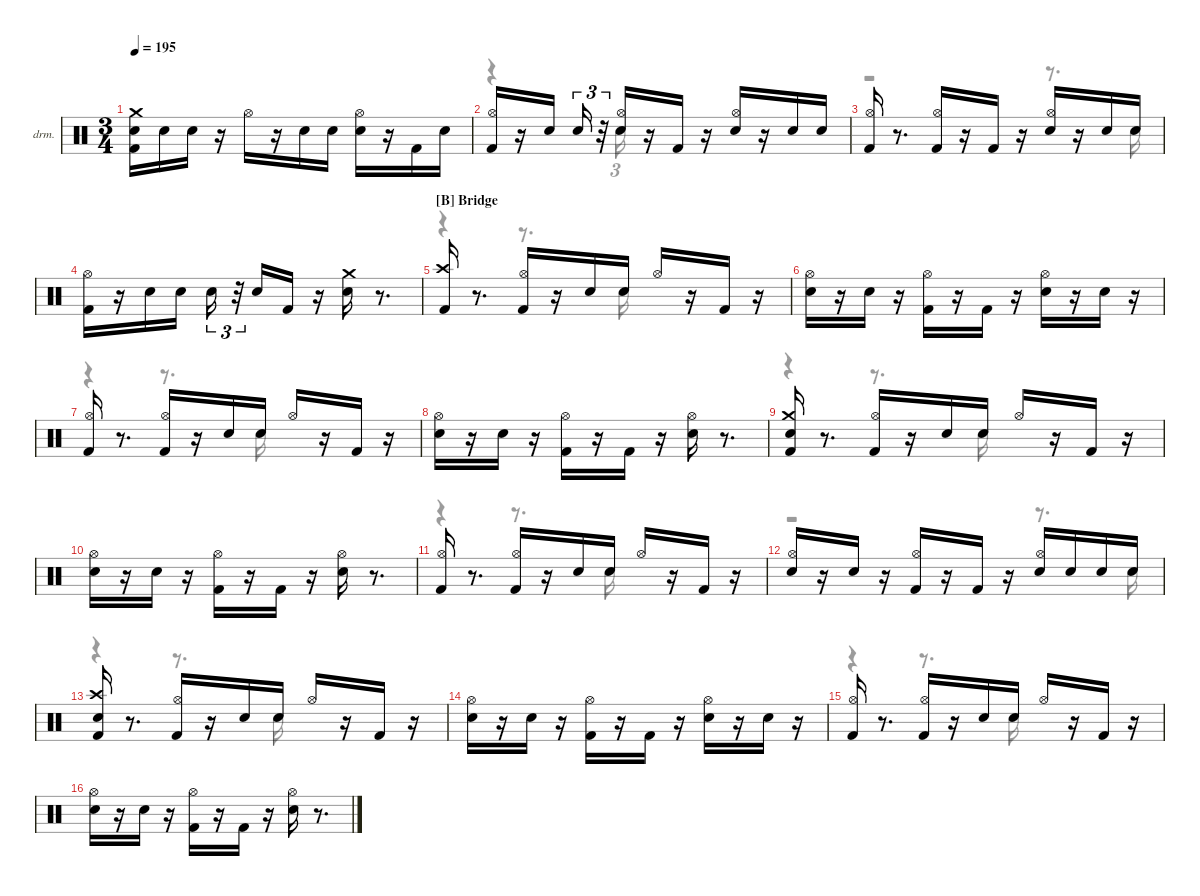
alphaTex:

\hideDynamics
\bracketExtendMode nobrackets
\firstSystemTrackNameOrientation horizontal
\track ("Drums" "drm.") {instrument percussion}
\staff {score}
\articulation defaults
\voice
\ts (3 4)
\tempo 195
\clef neutral
\ks aminor
("Kick (hit) 2" "Snare (hit) 2" "Crash medium (hit)").16{dy f} "Snare (hit) 2".16{dy pp} "Snare (hit) 2".16{dy ppp} r.16 "Hi-Hat (open)"{acc #}.16{dy mp} r.16 "Snare (hit) 2".16{dy ff} "Snare (hit) 2".16{dy pp} ("Snare (hit) 2" "Hi-Hat (open)"{acc #}).16{dy ppp} r.16 "Kick (hit) 2".16{dy p} "Snare (hit) 2".16{dy ppp} |
("Kick (hit) 2" "Hi-Hat (open)"{acc #}).16{dy ff} r.16 "Snare (hit) 2".16 "Snare (hit) 2".16{tu (3 2) dy pp} r.32{tu (3 2)} ("Snare (hit) 2" "Hi-Hat (open)"{acc #}).16{dy mf} r.16 "Kick (hit) 2".16{dy f} r.16 ("Snare (hit) 2" "Hi-Hat (open)"{acc #}).16{dy mf} r.16 "Snare (hit) 2".16{dy f} "Snare (hit) 2".16{dy ppp} |
("Kick (hit) 2" "Hi-Hat (open)"{acc #}).16{dy fff} r.8{d} ("Kick (hit) 2" "Hi-Hat (open)"{acc #}).16{dy mf} r.16 "Kick (hit) 2".16{dy ff} r.16 ("Snare (hit) 2" "Hi-Hat (open)"{acc #}).16{dy mf} r.16 "Snare (hit) 2".16{dy pp} "Snare (hit) 2".16{dy ppp} |
("Kick (hit) 2" "Hi-Hat (open)"{acc #}).16{dy ff} r.16 "Snare (hit) 2".16{dy mf} "Snare (hit) 2".16{dy p} "Snare (hit) 2".16{tu (3 2) dy ff} r.32{tu (3 2)} "Snare (hit) 2".16{dy ppp} "Kick (hit) 2".16{dy f} r.16 ("Snare (hit) 2" "Crash medium (hit)").16{dy ff} r.8{d} |
\section ("B" "Bridge")
("Kick (hit) 2" "Crash high (hit)"{acc #}).16 r.8{d} ("Kick (hit) 2" "Hi-Hat (open)"{acc #}).16{dy mf} r.16 "Snare (hit) 2".16{dy f} "Snare (hit) 2".16{dy ppp} "Hi-Hat (open)"{acc #}.16{dy f} r.16 "Kick (hit) 2".16 r.16 |
("Snare (hit) 2" "Hi-Hat (open)"{acc #}).16{dy ff} r.16 "Snare (hit) 2".16{dy ppp} r.16 ("Kick (hit) 2" "Hi-Hat (open)"{acc #}).16 r.16 "Kick (hit) 2".16{dy ff} r.16 ("Snare (hit) 2" "Hi-Hat (open)"{acc #}).16{dy f} r.16 "Snare (hit) 2".16{dy pp} r.16 |
("Kick (hit) 2" "Hi-Hat (open)"{acc #}).16{dy fff} r.8{d} ("Kick (hit) 2" "Hi-Hat (open)"{acc #}).16{dy f} r.16 "Snare (hit) 2".16 "Snare (hit) 2".16{dy ppp} "Hi-Hat (open)"{acc #}.16{dy ff} r.16 "Kick (hit) 2".16{dy f} r.16 |
("Snare (hit) 2" "Hi-Hat (open)"{acc #}).16{dy ff} r.16 "Snare (hit) 2".16{dy ppp} r.16 ("Kick (hit) 2" "Hi-Hat (open)"{acc #}).16{dy f} r.16 "Kick (hit) 2".16{dy ff} r.16 ("Snare (hit) 2" "Hi-Hat (open)"{acc #}).16{dy f} r.8{d} |
("Kick (hit) 2" "Snare (hit) 2" "Crash medium (hit)").16{dy ff} r.8{d} ("Kick (hit) 2" "Hi-Hat (open)"{acc #}).16{dy mf} r.16 "Snare (hit) 2".16{dy f} "Snare (hit) 2".16{dy ppp} "Hi-Hat (open)"{acc #}.16{dy f} r.16 "Kick (hit) 2".16 r.16 |
("Snare (hit) 2" "Hi-Hat (open)"{acc #}).16{dy ff} r.16 "Snare (hit) 2".16{dy ppp} r.16 ("Kick (hit) 2" "Hi-Hat (open)"{acc #}).16 r.16 "Kick (hit) 2".16{dy ff} r.16 ("Snare (hit) 2" "Hi-Hat (open)"{acc #}).16{dy fff} r.8{d} |
("Kick (hit) 2" "Hi-Hat (open)"{acc #}).16 r.8{d} ("Kick (hit) 2" "Hi-Hat (open)"{acc #}).16{dy mf} r.16 "Snare (hit) 2".16{dy f} "Snare (hit) 2".16{dy ppp} "Hi-Hat (open)"{acc #}.16{dy ff} r.16 "Kick (hit) 2".16{dy f} r.16 |
("Snare (hit) 2" "Hi-Hat (open)"{acc #}).16{dy ff} r.16 "Snare (hit) 2".16{dy ppp} r.16 ("Kick (hit) 2" "Hi-Hat (open)"{acc #}).16{dy mf} r.16 "Kick (hit) 2".16{dy ff} r.16 ("Snare (hit) 2" "Hi-Hat (open)"{acc #}).16{dy f} "Snare (hit) 2".16{dy pp} "Snare (hit) 2".16{dy ppp} "Snare (hit) 2".16 |
("Kick (hit) 2" "Snare (hit) 2" "Crash high (hit)"{acc #}).16{dy ff} r.8{d} ("Kick (hit) 2" "Hi-Hat (open)"{acc #}).16{dy mf} r.16 "Snare (hit) 2".16{dy f} "Snare (hit) 2".16{dy ppp} "Hi-Hat (open)"{acc #}.16{dy f} r.16 "Kick (hit) 2".16 r.16 |
("Snare (hit) 2" "Hi-Hat (open)"{acc #}).16{dy ff} r.16 "Snare (hit) 2".16{dy ppp} r.16 ("Kick (hit) 2" "Hi-Hat (open)"{acc #}).16{dy mf} r.16 "Kick (hit) 2".16{dy ff} r.16 ("Snare (hit) 2" "Hi-Hat (open)"{acc #}).16{dy fff} r.16 "Snare (hit) 2".16{dy pp} r.16 |
("Kick (hit) 2" "Hi-Hat (open)"{acc #}).16{dy ff} r.8{d} ("Kick (hit) 2" "Hi-Hat (open)"{acc #}).16{dy f} r.16 "Snare (hit) 2".16 "Snare (hit) 2".16{dy ppp} "Hi-Hat (open)"{acc #}.16{dy ff} r.16 "Kick (hit) 2".16{dy f} r.16 |
("Snare (hit) 2" "Hi-Hat (open)"{acc #}).16{dy ff} r.16 "Snare (hit) 2".16{dy ppp} r.16 ("Kick (hit) 2" "Hi-Hat (open)"{acc #}).16{dy f} r.16 "Kick (hit) 2".16{dy ff} r.16 ("Snare (hit) 2" "Hi-Hat (open)"{acc #}).16{dy f} r.8{d}
\voice
\clef neutral
\ottava regular
\simile none
\ks aminor
|
r.4 "Snare (hit) 2".16{tu (3 2)} |
r.2 r.8{d} "Snare (hit) 2".16 |
|
r.4 r.8{d} "Snare (hit) 2".16{dy pp} |
|
r.4 r.8{d} "Snare (hit) 2".16 |
|
r.4 r.8{d} "Snare (hit) 2".16 |
|
r.4 r.8{d} "Snare (hit) 2".16 |
r.2 r.8{d} "Snare (hit) 2".16{dy ppp} |
r.4 r.8{d} "Snare (hit) 2".16{dy pp} |
|
r.4 r.8{d} "Snare (hit) 2".16 |
